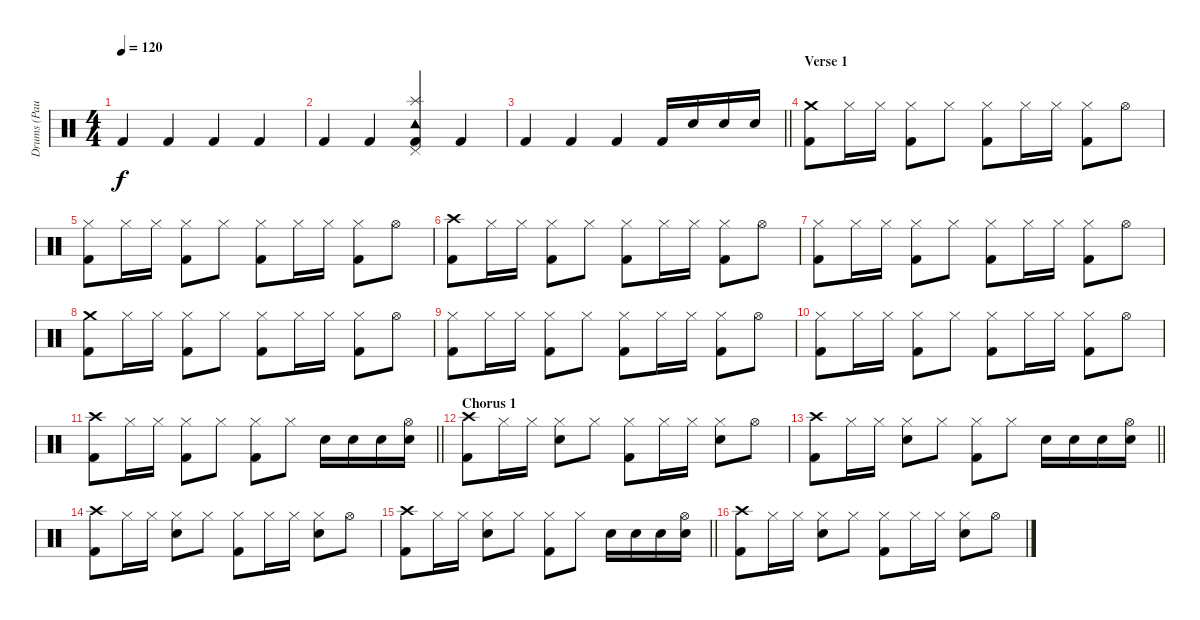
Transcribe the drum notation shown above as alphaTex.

\track ("Drums (Paul Thompson)" "Drums (Pau") {instrument percussion}
\staff {score}
\articulation defaults
\ts (4 4)
\tempo 120
\clef neutral
\ks c "Kick (hit) 2".4{dy f} "Kick (hit) 2".4 "Kick (hit) 2".4 "Kick (hit) 2".4
|
"Kick (hit) 2".4 "Kick (hit) 2".4 ("Tambourine (hit)" "Splash (hit)" "Pedal Hi-Hat (hit)" "Kick (hit) 2").4 "Kick (hit) 2".4 |
\barLineRight lightlight "Kick (hit) 2".4 "Kick (hit) 2".4 "Kick (hit) 2".4 "Kick (hit) 2".16 "Snare (hit) 2".16 "Snare (hit) 2".16 "Snare (hit) 2".16
|
\section ("" "Verse 1")
("Crash medium (hit)" "Kick (hit) 2").8 "Hi-Hat (closed)".16 "Hi-Hat (closed)".16 ("Hi-Hat (closed)" "Kick (hit) 2").8 "Hi-Hat (closed)".8 ("Hi-Hat (closed)" "Kick (hit) 2").8 "Hi-Hat (closed)".16 "Hi-Hat (closed)".16 ("Hi-Hat (closed)" "Kick (hit) 2").8 "Hi-Hat (open)".8 |
("Hi-Hat (closed)" "Kick (hit) 2").8 "Hi-Hat (closed)".16 "Hi-Hat (closed)".16 ("Hi-Hat (closed)" "Kick (hit) 2").8 "Hi-Hat (closed)".8 ("Hi-Hat (closed)" "Kick (hit) 2").8 "Hi-Hat (closed)".16 "Hi-Hat (closed)".16 ("Hi-Hat (closed)" "Kick (hit) 2").8 "Hi-Hat (open)".8 |
("Crash high (hit)" "Kick (hit) 2").8 "Hi-Hat (closed)".16 "Hi-Hat (closed)".16 ("Hi-Hat (closed)" "Kick (hit) 2").8 "Hi-Hat (closed)".8 ("Hi-Hat (closed)" "Kick (hit) 2").8 "Hi-Hat (closed)".16 "Hi-Hat (closed)".16 ("Hi-Hat (closed)" "Kick (hit) 2").8 "Hi-Hat (open)".8 |
("Hi-Hat (closed)" "Kick (hit) 2").8 "Hi-Hat (closed)".16 "Hi-Hat (closed)".16 ("Hi-Hat (closed)" "Kick (hit) 2").8 "Hi-Hat (closed)".8 ("Hi-Hat (closed)" "Kick (hit) 2").8 "Hi-Hat (closed)".16 "Hi-Hat (closed)".16 ("Hi-Hat (closed)" "Kick (hit) 2").8 "Hi-Hat (open)".8 |
("Crash medium (hit)" "Kick (hit) 2").8 "Hi-Hat (closed)".16 "Hi-Hat (closed)".16 ("Hi-Hat (closed)" "Kick (hit) 2").8 "Hi-Hat (closed)".8 ("Hi-Hat (closed)" "Kick (hit) 2").8 "Hi-Hat (closed)".16 "Hi-Hat (closed)".16 ("Hi-Hat (closed)" "Kick (hit) 2").8 "Hi-Hat (open)".8 |
("Hi-Hat (closed)" "Kick (hit) 2").8 "Hi-Hat (closed)".16 "Hi-Hat (closed)".16 ("Hi-Hat (closed)" "Kick (hit) 2").8 "Hi-Hat (closed)".8 ("Hi-Hat (closed)" "Kick (hit) 2").8 "Hi-Hat (closed)".16 "Hi-Hat (closed)".16 ("Hi-Hat (closed)" "Kick (hit) 2").8 "Hi-Hat (open)".8 |
("Hi-Hat (closed)" "Kick (hit) 2").8 "Hi-Hat (closed)".16 "Hi-Hat (closed)".16 ("Hi-Hat (closed)" "Kick (hit) 2").8 "Hi-Hat (closed)".8 ("Hi-Hat (closed)" "Kick (hit) 2").8 "Hi-Hat (closed)".16 "Hi-Hat (closed)".16 ("Hi-Hat (closed)" "Kick (hit) 2").8 "Hi-Hat (open)".8 |
\barLineRight lightlight
("Crash high (hit)" "Kick (hit) 2").8 "Hi-Hat (closed)".16 "Hi-Hat (closed)".16 ("Hi-Hat (closed)" "Kick (hit) 2").8 "Hi-Hat (closed)".8 ("Hi-Hat (closed)" "Kick (hit) 2").8 "Hi-Hat (closed)".8 "Snare (hit) 2".16 "Snare (hit) 2".16 "Snare (hit) 2".16 ("Hi-Hat (open)" "Snare (hit) 2").16 |
\section ("" "Chorus 1")
("Crash high (hit)" "Kick (hit) 2").8 "Hi-Hat (closed)".16 "Hi-Hat (closed)".16 ("Hi-Hat (closed)" "Snare (hit) 2").8 "Hi-Hat (closed)".8 ("Hi-Hat (closed)" "Kick (hit) 2").8 "Hi-Hat (closed)".16 "Hi-Hat (closed)".16 ("Hi-Hat (closed)" "Snare (hit) 2").8 "Hi-Hat (open)".8 |
\barLineRight lightlight
("Crash high (hit)" "Kick (hit) 2").8 "Hi-Hat (closed)".16 "Hi-Hat (closed)".16 ("Hi-Hat (closed)" "Snare (hit) 2").8 "Hi-Hat (closed)".8 ("Hi-Hat (closed)" "Kick (hit) 2").8 "Hi-Hat (closed)".8 "Snare (hit) 2".16 "Snare (hit) 2".16 "Snare (hit) 2".16 ("Hi-Hat (open)" "Snare (hit) 2").16 |
("Crash high (hit)" "Kick (hit) 2").8 "Hi-Hat (closed)".16 "Hi-Hat (closed)".16 ("Hi-Hat (closed)" "Snare (hit) 2").8 "Hi-Hat (closed)".8 ("Hi-Hat (closed)" "Kick (hit) 2").8 "Hi-Hat (closed)".16 "Hi-Hat (closed)".16 ("Hi-Hat (closed)" "Snare (hit) 2").8 "Hi-Hat (open)".8 |
\barLineRight lightlight
("Crash high (hit)" "Kick (hit) 2").8 "Hi-Hat (closed)".16 "Hi-Hat (closed)".16 ("Hi-Hat (closed)" "Snare (hit) 2").8 "Hi-Hat (closed)".8 ("Hi-Hat (closed)" "Kick (hit) 2").8 "Hi-Hat (closed)".8 "Snare (hit) 2".16 "Snare (hit) 2".16 "Snare (hit) 2".16 ("Hi-Hat (open)" "Snare (hit) 2").16 |
("Crash high (hit)" "Kick (hit) 2").8 "Hi-Hat (closed)".16 "Hi-Hat (closed)".16 ("Hi-Hat (closed)" "Snare (hit) 2").8 "Hi-Hat (closed)".8 ("Hi-Hat (closed)" "Kick (hit) 2").8 "Hi-Hat (closed)".16 "Hi-Hat (closed)".16 ("Hi-Hat (closed)" "Snare (hit) 2").8 "Hi-Hat (open)".8
